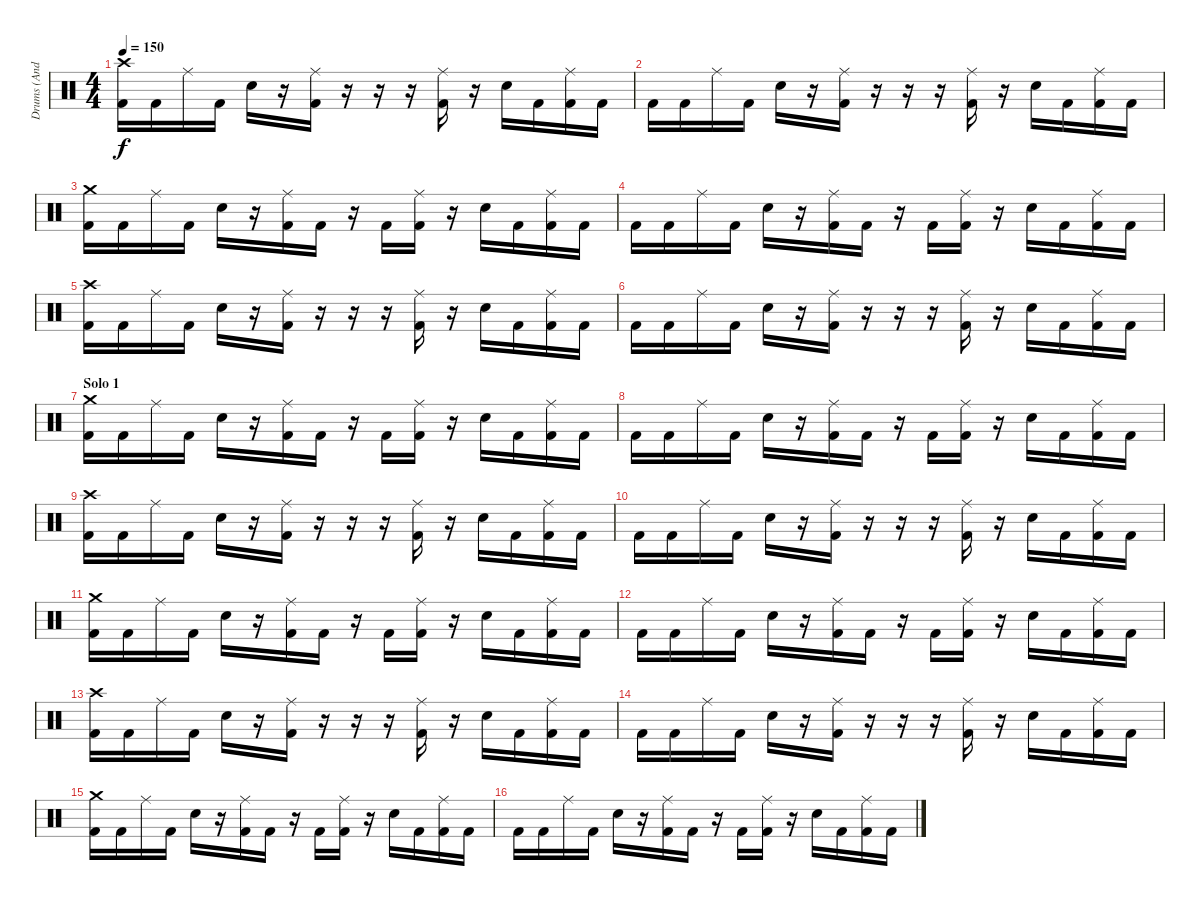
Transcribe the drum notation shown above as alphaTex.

\track ("Drums (Andy C)" "Drums (And") {instrument percussion}
\staff {score}
\articulation defaults
\ts (4 4)
\tempo 150
\clef neutral
\ks c
("Crash high (hit)" "Kick (hit) 2").16{dy f} "Kick (hit) 2".16 "Ride (middle)".16 "Kick (hit) 2".16 "Electric Snare (hit)".16 r.16 ("Ride (middle)" "Kick (hit) 2").16 r.16 r.16 r.16 ("Ride (middle)" "Kick (hit) 2").16 r.16 "Electric Snare (hit)".16 "Kick (hit) 2".16 ("Ride (middle)" "Kick (hit) 2").16 "Kick (hit) 2".16 |
"Kick (hit) 2".16 "Kick (hit) 2".16 "Ride (middle)".16 "Kick (hit) 2".16 "Electric Snare (hit)".16 r.16 ("Ride (middle)" "Kick (hit) 2").16 r.16 r.16 r.16 ("Ride (middle)" "Kick (hit) 2").16 r.16 "Electric Snare (hit)".16 "Kick (hit) 2".16 ("Ride (middle)" "Kick (hit) 2").16 "Kick (hit) 2".16 |
("Crash medium (hit)" "Kick (hit) 2").16 "Kick (hit) 2".16 "Ride (middle)".16 "Kick (hit) 2".16 "Electric Snare (hit)".16 r.16 ("Ride (middle)" "Kick (hit) 2").16 "Kick (hit) 2".16 r.16 "Kick (hit) 2".16 ("Ride (middle)" "Kick (hit) 2").16 r.16 "Electric Snare (hit)".16 "Kick (hit) 2".16 ("Ride (middle)" "Kick (hit) 2").16 "Kick (hit) 2".16 |
"Kick (hit) 2".16 "Kick (hit) 2".16 "Ride (middle)".16 "Kick (hit) 2".16 "Electric Snare (hit)".16 r.16 ("Ride (middle)" "Kick (hit) 2").16 "Kick (hit) 2".16 r.16 "Kick (hit) 2".16 ("Ride (middle)" "Kick (hit) 2").16 r.16 "Electric Snare (hit)".16 "Kick (hit) 2".16 ("Ride (middle)" "Kick (hit) 2").16 "Kick (hit) 2".16 |
("Crash high (hit)" "Kick (hit) 2").16 "Kick (hit) 2".16 "Ride (middle)".16 "Kick (hit) 2".16 "Electric Snare (hit)".16 r.16 ("Ride (middle)" "Kick (hit) 2").16 r.16 r.16 r.16 ("Ride (middle)" "Kick (hit) 2").16 r.16 "Electric Snare (hit)".16 "Kick (hit) 2".16 ("Ride (middle)" "Kick (hit) 2").16 "Kick (hit) 2".16 |
"Kick (hit) 2".16 "Kick (hit) 2".16 "Ride (middle)".16 "Kick (hit) 2".16 "Electric Snare (hit)".16 r.16 ("Ride (middle)" "Kick (hit) 2").16 r.16 r.16 r.16 ("Ride (middle)" "Kick (hit) 2").16 r.16 "Electric Snare (hit)".16 "Kick (hit) 2".16 ("Ride (middle)" "Kick (hit) 2").16 "Kick (hit) 2".16 |
\section ("" "Solo 1")
("Crash medium (hit)" "Kick (hit) 2").16 "Kick (hit) 2".16 "Ride (middle)".16 "Kick (hit) 2".16 "Electric Snare (hit)".16 r.16 ("Ride (middle)" "Kick (hit) 2").16 "Kick (hit) 2".16 r.16 "Kick (hit) 2".16 ("Ride (middle)" "Kick (hit) 2").16 r.16 "Electric Snare (hit)".16 "Kick (hit) 2".16 ("Ride (middle)" "Kick (hit) 2").16 "Kick (hit) 2".16 |
"Kick (hit) 2".16 "Kick (hit) 2".16 "Ride (middle)".16 "Kick (hit) 2".16 "Electric Snare (hit)".16 r.16 ("Ride (middle)" "Kick (hit) 2").16 "Kick (hit) 2".16 r.16 "Kick (hit) 2".16 ("Ride (middle)" "Kick (hit) 2").16 r.16 "Electric Snare (hit)".16 "Kick (hit) 2".16 ("Ride (middle)" "Kick (hit) 2").16 "Kick (hit) 2".16 |
("Crash high (hit)" "Kick (hit) 2").16 "Kick (hit) 2".16 "Ride (middle)".16 "Kick (hit) 2".16 "Electric Snare (hit)".16 r.16 ("Ride (middle)" "Kick (hit) 2").16 r.16 r.16 r.16 ("Ride (middle)" "Kick (hit) 2").16 r.16 "Electric Snare (hit)".16 "Kick (hit) 2".16 ("Ride (middle)" "Kick (hit) 2").16 "Kick (hit) 2".16 |
"Kick (hit) 2".16 "Kick (hit) 2".16 "Ride (middle)".16 "Kick (hit) 2".16 "Electric Snare (hit)".16 r.16 ("Ride (middle)" "Kick (hit) 2").16 r.16 r.16 r.16 ("Ride (middle)" "Kick (hit) 2").16 r.16 "Electric Snare (hit)".16 "Kick (hit) 2".16 ("Ride (middle)" "Kick (hit) 2").16 "Kick (hit) 2".16 |
("Crash medium (hit)" "Kick (hit) 2").16 "Kick (hit) 2".16 "Ride (middle)".16 "Kick (hit) 2".16 "Electric Snare (hit)".16 r.16 ("Ride (middle)" "Kick (hit) 2").16 "Kick (hit) 2".16 r.16 "Kick (hit) 2".16 ("Ride (middle)" "Kick (hit) 2").16 r.16 "Electric Snare (hit)".16 "Kick (hit) 2".16 ("Ride (middle)" "Kick (hit) 2").16 "Kick (hit) 2".16 |
"Kick (hit) 2".16 "Kick (hit) 2".16 "Ride (middle)".16 "Kick (hit) 2".16 "Electric Snare (hit)".16 r.16 ("Ride (middle)" "Kick (hit) 2").16 "Kick (hit) 2".16 r.16 "Kick (hit) 2".16 ("Ride (middle)" "Kick (hit) 2").16 r.16 "Electric Snare (hit)".16 "Kick (hit) 2".16 ("Ride (middle)" "Kick (hit) 2").16 "Kick (hit) 2".16 |
("Crash high (hit)" "Kick (hit) 2").16 "Kick (hit) 2".16 "Ride (middle)".16 "Kick (hit) 2".16 "Electric Snare (hit)".16 r.16 ("Ride (middle)" "Kick (hit) 2").16 r.16 r.16 r.16 ("Ride (middle)" "Kick (hit) 2").16 r.16 "Electric Snare (hit)".16 "Kick (hit) 2".16 ("Ride (middle)" "Kick (hit) 2").16 "Kick (hit) 2".16 |
"Kick (hit) 2".16 "Kick (hit) 2".16 "Ride (middle)".16 "Kick (hit) 2".16 "Electric Snare (hit)".16 r.16 ("Ride (middle)" "Kick (hit) 2").16 r.16 r.16 r.16 ("Ride (middle)" "Kick (hit) 2").16 r.16 "Electric Snare (hit)".16 "Kick (hit) 2".16 ("Ride (middle)" "Kick (hit) 2").16 "Kick (hit) 2".16 |
("Crash medium (hit)" "Kick (hit) 2").16 "Kick (hit) 2".16 "Ride (middle)".16 "Kick (hit) 2".16 "Electric Snare (hit)".16 r.16 ("Ride (middle)" "Kick (hit) 2").16 "Kick (hit) 2".16 r.16 "Kick (hit) 2".16 ("Ride (middle)" "Kick (hit) 2").16 r.16 "Electric Snare (hit)".16 "Kick (hit) 2".16 ("Ride (middle)" "Kick (hit) 2").16 "Kick (hit) 2".16 |
"Kick (hit) 2".16 "Kick (hit) 2".16 "Ride (middle)".16 "Kick (hit) 2".16 "Electric Snare (hit)".16 r.16 ("Ride (middle)" "Kick (hit) 2").16 "Kick (hit) 2".16 r.16 "Kick (hit) 2".16 ("Ride (middle)" "Kick (hit) 2").16 r.16 "Electric Snare (hit)".16 "Kick (hit) 2".16 ("Ride (middle)" "Kick (hit) 2").16 "Kick (hit) 2".16
